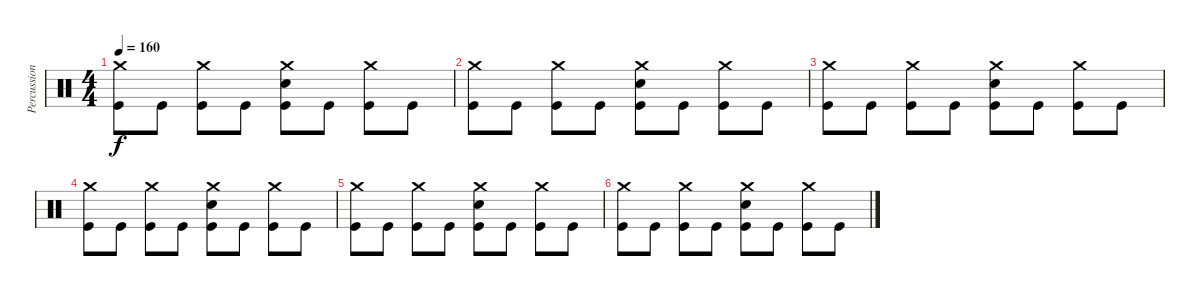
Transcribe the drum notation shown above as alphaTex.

\track ("Percussion" "Percussion") {instrument percussion}
\staff {score}
\articulation defaults
\ts (4 4)
\tempo 160
\clef neutral
\ks c
("Crash medium (hit)" "Kick (hit)").8{dy f} "Kick (hit)".8 ("Crash medium (hit)" "Kick (hit)").8 "Kick (hit)".8 ("Crash medium (hit)" "Electric Snare (hit)" "Kick (hit)").8 "Kick (hit)".8 ("Crash medium (hit)" "Kick (hit)").8 "Kick (hit)".8 |
("Crash medium (hit)" "Kick (hit)").8 "Kick (hit)".8 ("Crash medium (hit)" "Kick (hit)").8 "Kick (hit)".8 ("Crash medium (hit)" "Electric Snare (hit)" "Kick (hit)").8 "Kick (hit)".8 ("Crash medium (hit)" "Kick (hit)").8 "Kick (hit)".8 |
("Crash medium (hit)" "Kick (hit)").8 "Kick (hit)".8 ("Crash medium (hit)" "Kick (hit)").8 "Kick (hit)".8 ("Crash medium (hit)" "Electric Snare (hit)" "Kick (hit)").8 "Kick (hit)".8 ("Crash medium (hit)" "Kick (hit)").8 "Kick (hit)".8 |
("Crash medium (hit)" "Kick (hit)").8 "Kick (hit)".8 ("Crash medium (hit)" "Kick (hit)").8 "Kick (hit)".8 ("Crash medium (hit)" "Electric Snare (hit)" "Kick (hit)").8 "Kick (hit)".8 ("Crash medium (hit)" "Kick (hit)").8 "Kick (hit)".8 |
("Crash medium (hit)" "Kick (hit)").8 "Kick (hit)".8 ("Crash medium (hit)" "Kick (hit)").8 "Kick (hit)".8 ("Crash medium (hit)" "Electric Snare (hit)" "Kick (hit)").8 "Kick (hit)".8 ("Crash medium (hit)" "Kick (hit)").8 "Kick (hit)".8 |
("Crash medium (hit)" "Kick (hit)").8 "Kick (hit)".8 ("Crash medium (hit)" "Kick (hit)").8 "Kick (hit)".8 ("Crash medium (hit)" "Electric Snare (hit)" "Kick (hit)").8 "Kick (hit)".8 ("Crash medium (hit)" "Kick (hit)").8 "Kick (hit)".8
